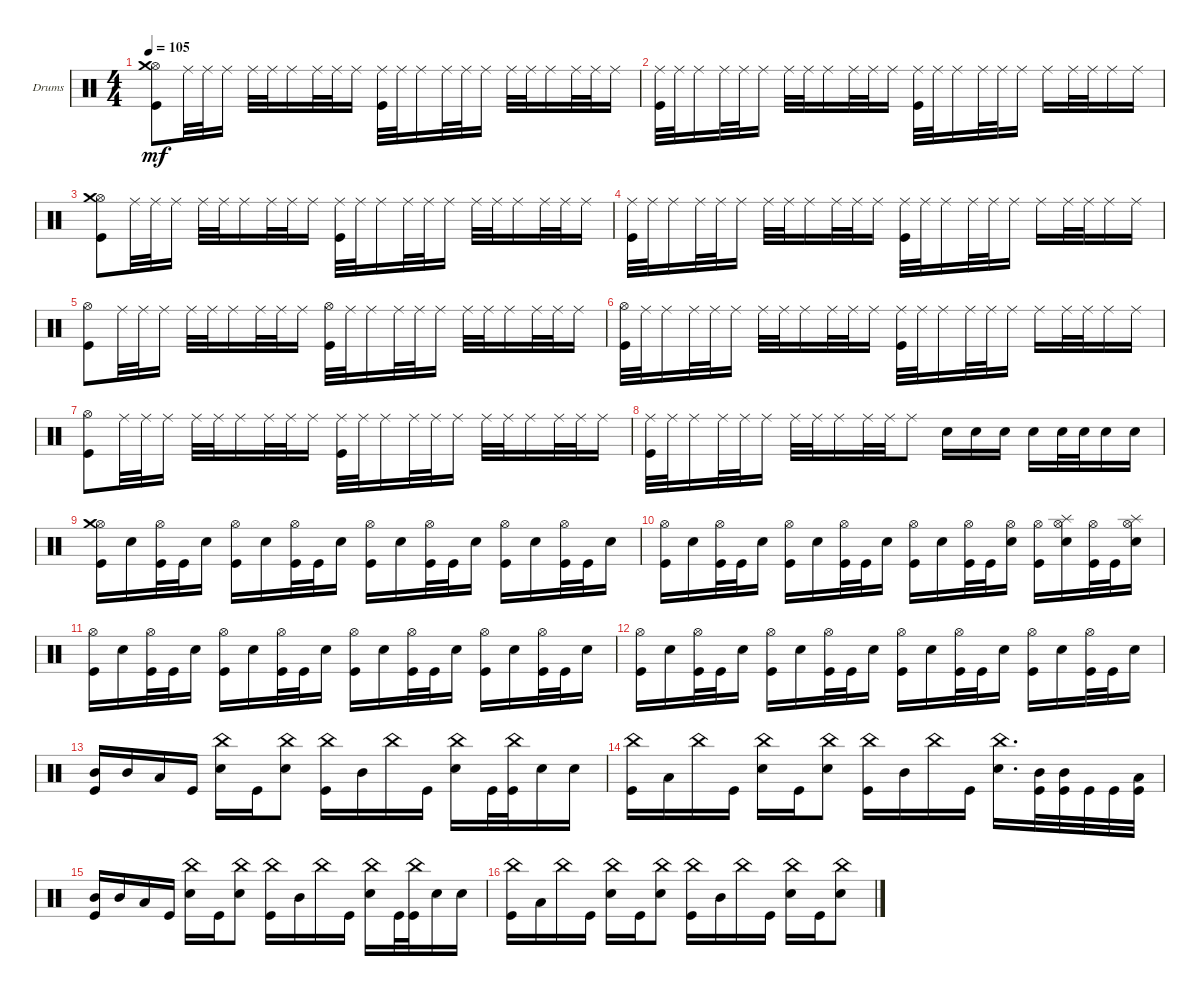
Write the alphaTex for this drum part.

\defaultSystemsLayout 4
\bracketExtendMode groupsimilarinstruments
\firstSystemTrackNameOrientation horizontal
\otherSystemsTrackNameOrientation horizontal
\track ("Hell On da Drums" "Drums") {instrument percussion}
\staff {score}
\articulation defaults
\ts (4 4)
\tempo 105
\clef neutral
\scale
0.474178
\ks c
("Kick (hit)" "Hi-Hat (open)" "Crash medium (hit)").8{dy mf} "Ride (middle)".32 "Ride (middle)".32 "Ride (middle)".16 "Ride (middle)".32 "Ride (middle)".32 "Ride (middle)".16 "Ride (middle)".32 "Ride (middle)".32 "Ride (middle)".16 ("Ride (middle)" "Kick (hit)").32 "Ride (middle)".32 "Ride (middle)".16 "Ride (middle)".32 "Ride (middle)".32 "Ride (middle)".16 "Ride (middle)".32 "Ride (middle)".32 "Ride (middle)".16 "Ride (middle)".32 "Ride (middle)".32 "Ride (middle)".16 |
\scale
0.262911 ("Kick (hit)" "Ride (middle)").32 "Ride (middle)".32 "Ride (middle)".16 "Ride (middle)".32 "Ride (middle)".32 "Ride (middle)".16 "Ride (middle)".32 "Ride (middle)".32 "Ride (middle)".16 "Ride (middle)".32 "Ride (middle)".32 "Ride (middle)".16 ("Ride (middle)" "Kick (hit)").32 "Ride (middle)".32 "Ride (middle)".16 "Ride (middle)".32 "Ride (middle)".32 "Ride (middle)".16 "Ride (middle)".16 "Ride (middle)".32 "Ride (middle)".32 "Ride (middle)".16 "Ride (middle)".16 |
\scale
0.262911 ("Kick (hit)" "Hi-Hat (open)" "Crash medium (hit)").8 "Ride (middle)".32 "Ride (middle)".32 "Ride (middle)".16 "Ride (middle)".32 "Ride (middle)".32 "Ride (middle)".16 "Ride (middle)".32 "Ride (middle)".32 "Ride (middle)".16 ("Ride (middle)" "Kick (hit)").32 "Ride (middle)".32 "Ride (middle)".16 "Ride (middle)".32 "Ride (middle)".32 "Ride (middle)".16 "Ride (middle)".32 "Ride (middle)".32 "Ride (middle)".16 "Ride (middle)".32 "Ride (middle)".32 "Ride (middle)".16 |
\scale
0.333333 ("Kick (hit)" "Ride (middle)").32 "Ride (middle)".32 "Ride (middle)".16 "Ride (middle)".32 "Ride (middle)".32 "Ride (middle)".16 "Ride (middle)".32 "Ride (middle)".32 "Ride (middle)".16 "Ride (middle)".32 "Ride (middle)".32 "Ride (middle)".16 ("Ride (middle)" "Kick (hit)").32 "Ride (middle)".32 "Ride (middle)".16 "Ride (middle)".32 "Ride (middle)".32 "Ride (middle)".16 "Ride (middle)".16 "Ride (middle)".32 "Ride (middle)".32 "Ride (middle)".16 "Ride (middle)".16 |
\scale
0.333333 ("Kick (hit)" "Hi-Hat (open)").8 "Ride (middle)".32 "Ride (middle)".32 "Ride (middle)".16 "Ride (middle)".32 "Ride (middle)".32 "Ride (middle)".16 "Ride (middle)".32 "Ride (middle)".32 "Ride (middle)".16 ("Kick (hit)" "Hi-Hat (open)").32 "Ride (middle)".32 "Ride (middle)".16 "Ride (middle)".32 "Ride (middle)".32 "Ride (middle)".16 "Ride (middle)".32 "Ride (middle)".32 "Ride (middle)".16 "Ride (middle)".32 "Ride (middle)".32 "Ride (middle)".16 |
\scale
0.333333 ("Kick (hit)" "Hi-Hat (open)").32 "Ride (middle)".32 "Ride (middle)".16 "Ride (middle)".32 "Ride (middle)".32 "Ride (middle)".16 "Ride (middle)".32 "Ride (middle)".32 "Ride (middle)".16 "Ride (middle)".32 "Ride (middle)".32 "Ride (middle)".16 ("Kick (hit)" "Ride (middle)").32 "Ride (middle)".32 "Ride (middle)".16 "Ride (middle)".32 "Ride (middle)".32 "Ride (middle)".16 "Ride (middle)".16 "Ride (middle)".32 "Ride (middle)".32 "Ride (middle)".16 "Ride (middle)".16 |
("Kick (hit)" "Hi-Hat (open)").8 "Ride (middle)".32 "Ride (middle)".32 "Ride (middle)".16 "Ride (middle)".32 "Ride (middle)".32 "Ride (middle)".16 "Ride (middle)".32 "Ride (middle)".32 "Ride (middle)".16 ("Ride (middle)" "Kick (hit)").32 "Ride (middle)".32 "Ride (middle)".16 "Ride (middle)".32 "Ride (middle)".32 "Ride (middle)".16 "Ride (middle)".32 "Ride (middle)".32 "Ride (middle)".16 "Ride (middle)".32 "Ride (middle)".32 "Ride (middle)".16 |
("Kick (hit)" "Ride (middle)").32 "Ride (middle)".32 "Ride (middle)".16 "Ride (middle)".32 "Ride (middle)".32 "Ride (middle)".16 "Ride (middle)".32 "Ride (middle)".32 "Ride (middle)".16 "Ride (middle)".32 "Ride (middle)".32 "Ride (middle)".8 "Snare (hit) 2".16 "Snare (hit) 2".16 "Snare (hit) 2".16 "Snare (hit) 2".16 "Snare (hit) 2".32 "Snare (hit) 2".32 "Snare (hit) 2".16 "Snare (hit) 2".16 |
("Kick (hit)" "Hi-Hat (open)" "Crash medium (hit)").16 "Snare (hit) 2".16 ("Kick (hit)" "Hi-Hat (open)").32 "Kick (hit)".32 "Snare (hit) 2".16 ("Kick (hit)" "Hi-Hat (open)").16 "Snare (hit) 2".16 ("Kick (hit)" "Hi-Hat (open)").32 "Kick (hit)".32 "Snare (hit) 2".16 ("Kick (hit)" "Hi-Hat (open)").16 "Snare (hit) 2".16 ("Kick (hit)" "Hi-Hat (open)").32 "Kick (hit)".32 "Snare (hit) 2".16 ("Kick (hit)" "Hi-Hat (open)").16 "Snare (hit) 2".16 ("Kick (hit)" "Hi-Hat (open)").32 "Kick (hit)".32 "Snare (hit) 2".16 |
("Hi-Hat (open)" "Kick (hit)").16 "Snare (hit) 2".16 ("Kick (hit)" "Hi-Hat (open)").32 "Kick (hit)".32 "Snare (hit) 2".16 ("Kick (hit)" "Hi-Hat (open)").16 "Snare (hit) 2".16 ("Kick (hit)" "Hi-Hat (open)").32 "Kick (hit)".32 "Snare (hit) 2".16 ("Kick (hit)" "Hi-Hat (open)").16 "Snare (hit) 2".16 ("Kick (hit)" "Hi-Hat (open)").32 "Kick (hit)".32 ("Snare (hit) 2" "Hi-Hat (open)").16 ("Kick (hit)" "Hi-Hat (open)").16 ("Snare (hit) 2" "Hi-Hat (open)" "Splash (hit)").16 ("Kick (hit)" "Hi-Hat (open)").32 "Kick (hit)".32 ("Snare (hit) 2" "Hi-Hat (open)" "Splash (hit)").16 |
("Kick (hit)" "Hi-Hat (open)").16 "Snare (hit) 2".16 ("Kick (hit)" "Hi-Hat (open)").32 "Kick (hit)".32 "Snare (hit) 2".16 ("Kick (hit)" "Hi-Hat (open)").16 "Snare (hit) 2".16 ("Kick (hit)" "Hi-Hat (open)").32 "Kick (hit)".32 "Snare (hit) 2".16 ("Kick (hit)" "Hi-Hat (open)").16 "Snare (hit) 2".16 ("Kick (hit)" "Hi-Hat (open)").32 "Kick (hit)".32 "Snare (hit) 2".16 ("Kick (hit)" "Hi-Hat (open)").16 "Snare (hit) 2".16 ("Kick (hit)" "Hi-Hat (open)").32 "Kick (hit)".32 "Snare (hit) 2".16 |
("Kick (hit)" "Hi-Hat (open)").16 "Snare (hit) 2".16 ("Kick (hit)" "Hi-Hat (open)").32 "Kick (hit)".32 "Snare (hit) 2".16 ("Kick (hit)" "Hi-Hat (open)").16 "Snare (hit) 2".16 ("Kick (hit)" "Hi-Hat (open)").32 "Kick (hit)".32 "Snare (hit) 2".16 ("Kick (hit)" "Hi-Hat (open)").16 "Snare (hit) 2".16 ("Kick (hit)" "Hi-Hat (open)").32 "Kick (hit)".32 "Snare (hit) 2".16 ("Kick (hit)" "Hi-Hat (open)").16 "Snare (hit) 2".16 ("Kick (hit)" "Hi-Hat (open)").32 "Kick (hit)".32 "Snare (hit) 2".16 |
("Mid Tom (hit)" "Kick (hit)").16 "Mid Tom (hit)".16 "Low Tom (hit)".16 "Kick (hit)".16 ("Snare (hit) 2" "China (hit)").16 "Kick (hit)".16 ("Snare (hit) 2" "China (hit)").8 ("Kick (hit)" "China (hit)").16 "Mid Tom (hit)".16 "China (hit)".16 "Kick (hit)".16 ("Snare (hit) 2" "China (hit)").16 "Kick (hit)".32 ("Kick (hit)" "China (hit)").32 "Snare (hit) 2".16 "Snare (hit) 2".16 |
("Kick (hit)" "China (hit)").16 "Low Tom (hit)".16 "China (hit)".16 "Kick (hit)".16 ("Snare (hit) 2" "China (hit)").16 "Kick (hit)".16 ("Snare (hit) 2" "China (hit)").8 ("Kick (hit)" "China (hit)").16 "Mid Tom (hit)".16 "China (hit)".16 "Kick (hit)".16 ("Snare (hit) 2" "China (hit)").16{d} ("Mid Tom (hit)" "Kick (hit)").32 ("Mid Tom (hit)" "Kick (hit)").32 "Kick (hit)".32 "Kick (hit)".32 ("Low Tom (hit)" "Kick (hit)").32 |
("Mid Tom (hit)" "Kick (hit)").16 "Mid Tom (hit)".16 "Low Tom (hit)".16 "Kick (hit)".16 ("Snare (hit) 2" "China (hit)").16 "Kick (hit)".16 ("Snare (hit) 2" "China (hit)").8 ("Kick (hit)" "China (hit)").16 "Mid Tom (hit)".16 "China (hit)".16 "Kick (hit)".16 ("Snare (hit) 2" "China (hit)").16 "Kick (hit)".32 ("Kick (hit)" "China (hit)").32 "Snare (hit) 2".16 "Snare (hit) 2".16 |
("Kick (hit)" "China (hit)").16 "Low Tom (hit)".16 "China (hit)".16 "Kick (hit)".16 ("Snare (hit) 2" "China (hit)").16 "Kick (hit)".16 ("Snare (hit) 2" "China (hit)").8 ("Kick (hit)" "China (hit)").16 "Mid Tom (hit)".16 "China (hit)".16 "Kick (hit)".16 ("Snare (hit) 2" "China (hit)").16 "Kick (hit)".16 ("Snare (hit) 2" "China (hit)").8
